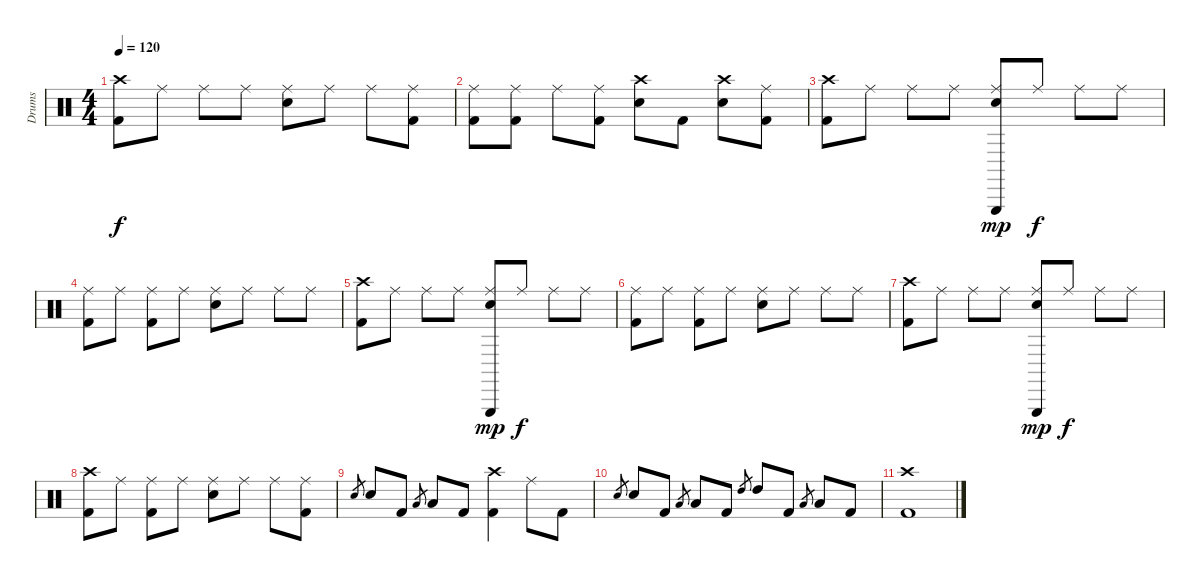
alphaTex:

\track ("Drums" "Drums") {instrument percussion}
\staff {score}
\articulation defaults
\ts (4 4)
\tempo 120
\clef neutral
\ks c
("Crash high (hit)" "Kick (hit) 2").8{dy f} "Ride (middle)".8 "Ride (middle)".8 "Ride (middle)".8 ("Ride (middle)" "Snare (hit) 2").8 "Ride (middle)".8 "Ride (middle)".8 ("Ride (middle)" "Kick (hit) 2").8 |
("Ride (middle)" "Kick (hit) 2").8 ("Ride (middle)" "Kick (hit) 2").8 "Ride (middle)".8 ("Ride (middle)" "Kick (hit) 2").8 ("Crash high (hit)" "Snare (hit) 2").8 "Kick (hit) 2".8 ("Crash high (hit)" "Snare (hit) 2").8 ("Ride (middle)" "Kick (hit) 2").8 |
("Crash high (hit)" "Kick (hit) 2").8 "Ride (middle)".8 "Ride (middle)".8 "Ride (middle)".8 ("Ride (middle)" "Snare (hit) 2" "Triangle (hit)").8{dy mp} "Ride (middle)".8{dy f} "Ride (middle)".8 "Ride (middle)".8 |
("Ride (middle)" "Kick (hit) 2").8 "Ride (middle)".8 ("Ride (middle)" "Kick (hit) 2").8 "Ride (middle)".8 ("Ride (middle)" "Snare (hit) 2").8 "Ride (middle)".8 "Ride (middle)".8 "Ride (middle)".8 |
("Crash high (hit)" "Kick (hit) 2").8 "Ride (middle)".8 "Ride (middle)".8 "Ride (middle)".8 ("Ride (middle)" "Snare (hit) 2" "Triangle (hit)").8{dy mp} "Ride (middle)".8{dy f} "Ride (middle)".8 "Ride (middle)".8 |
("Ride (middle)" "Kick (hit) 2").8 "Ride (middle)".8 ("Ride (middle)" "Kick (hit) 2").8 "Ride (middle)".8 ("Ride (middle)" "Snare (hit) 2").8 "Ride (middle)".8 "Ride (middle)".8 "Ride (middle)".8 |
("Crash high (hit)" "Kick (hit) 2").8 "Ride (middle)".8 "Ride (middle)".8 "Ride (middle)".8 ("Ride (middle)" "Snare (hit) 2" "Triangle (hit)").8{dy mp} "Ride (middle)".8{dy f} "Ride (middle)".8 "Ride (middle)".8 |
("Crash high (hit)" "Kick (hit) 2").8 "Ride (middle)".8 ("Ride (middle)" "Kick (hit) 2").8 "Ride (middle)".8 ("Ride (middle)" "Snare (hit) 2").8 "Ride (middle)".8 "Ride (middle)".8 ("Ride (middle)" "Kick (hit) 2").8 |
"Snare (hit) 2".8{gr} "Snare (hit) 2".8 "Kick (hit) 2".8 "Low Tom (hit)".8{gr} "Low Tom (hit)".8 "Kick (hit) 2".8 ("Crash high (hit)" "Kick (hit) 2").4 "Ride (middle)".8 "Kick (hit) 2".8 |
"Snare (hit) 2".8{gr} "Snare (hit) 2".8 "Kick (hit) 2".8 "Low Tom (hit)".8{gr} "Low Tom (hit)".8 "Kick (hit) 2".8 "High Tom (hit)".8{gr} "High Tom (hit)".8 "Kick (hit) 2".8 "Low Tom (hit)".8{gr} "Low Tom (hit)".8 "Kick (hit) 2".8 |
("Crash high (hit)" "Kick (hit) 2").1
